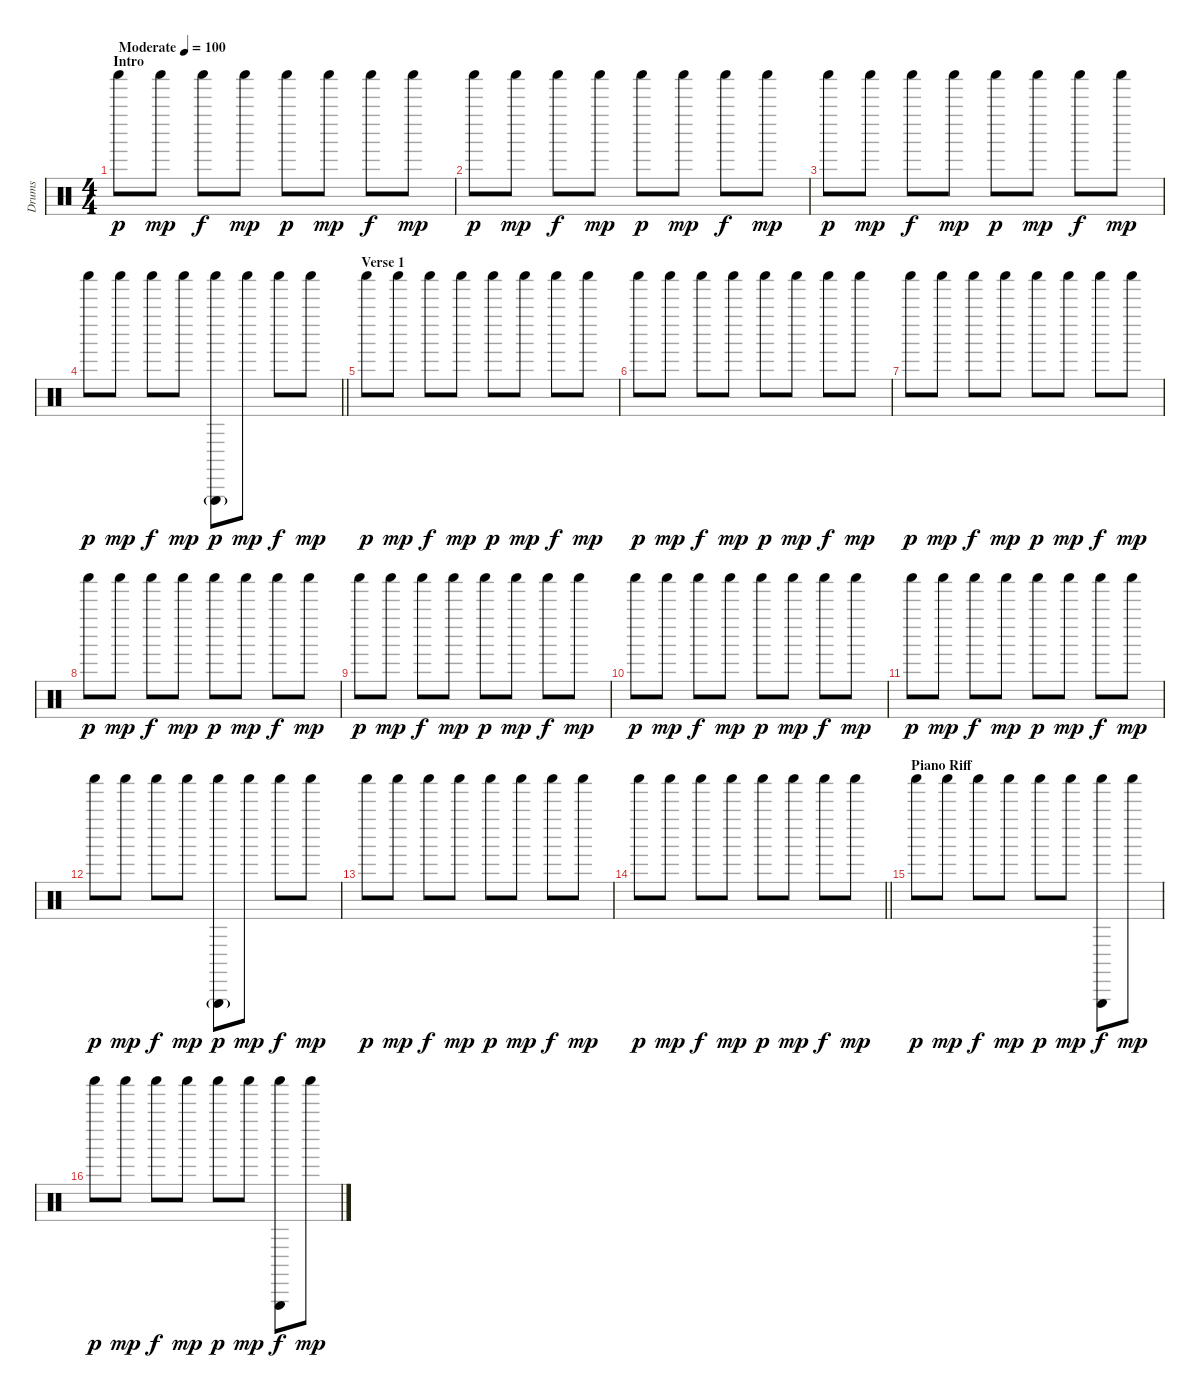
\track ("Drums" "Drums") {instrument percussion}
\staff {score}
\articulation defaults
\ts (4 4)
\section ("" "Intro")
\tempo (100 "Moderate")
\clef neutral
\ks c "Shaker (hit)".8{dy p} "Shaker (hit)".8{dy mp} "Shaker (hit)".8{dy f} "Shaker (hit)".8{dy mp} "Shaker (hit)".8{dy p} "Shaker (hit)".8{dy mp} "Shaker (hit)".8{dy f} "Shaker (hit)".8{dy mp}
|
"Shaker (hit)".8{dy p} "Shaker (hit)".8{dy mp} "Shaker (hit)".8{dy f} "Shaker (hit)".8{dy mp} "Shaker (hit)".8{dy p} "Shaker (hit)".8{dy mp} "Shaker (hit)".8{dy f} "Shaker (hit)".8{dy mp} |
"Shaker (hit)".8{dy p} "Shaker (hit)".8{dy mp} "Shaker (hit)".8{dy f} "Shaker (hit)".8{dy mp} "Shaker (hit)".8{dy p} "Shaker (hit)".8{dy mp} "Shaker (hit)".8{dy f} "Shaker (hit)".8{dy mp} |
\barLineRight lightlight "Shaker (hit)".8{dy p} "Shaker (hit)".8{dy mp} "Shaker (hit)".8{dy f} "Shaker (hit)".8{dy mp}
("Triangle (hit)"{g} "Shaker (hit)").8{dy p} "Shaker (hit)".8{dy mp} "Shaker (hit)".8{dy f} "Shaker (hit)".8{dy mp} |
\section ("" "Verse 1")
"Shaker (hit)".8{dy p} "Shaker (hit)".8{dy mp} "Shaker (hit)".8{dy f} "Shaker (hit)".8{dy mp} "Shaker (hit)".8{dy p} "Shaker (hit)".8{dy mp} "Shaker (hit)".8{dy f} "Shaker (hit)".8{dy mp} |
"Shaker (hit)".8{dy p} "Shaker (hit)".8{dy mp} "Shaker (hit)".8{dy f} "Shaker (hit)".8{dy mp} "Shaker (hit)".8{dy p} "Shaker (hit)".8{dy mp} "Shaker (hit)".8{dy f} "Shaker (hit)".8{dy mp} |
"Shaker (hit)".8{dy p} "Shaker (hit)".8{dy mp} "Shaker (hit)".8{dy f} "Shaker (hit)".8{dy mp} "Shaker (hit)".8{dy p} "Shaker (hit)".8{dy mp} "Shaker (hit)".8{dy f} "Shaker (hit)".8{dy mp} |
"Shaker (hit)".8{dy p} "Shaker (hit)".8{dy mp} "Shaker (hit)".8{dy f} "Shaker (hit)".8{dy mp} "Shaker (hit)".8{dy p} "Shaker (hit)".8{dy mp} "Shaker (hit)".8{dy f} "Shaker (hit)".8{dy mp} |
"Shaker (hit)".8{dy p} "Shaker (hit)".8{dy mp} "Shaker (hit)".8{dy f} "Shaker (hit)".8{dy mp} "Shaker (hit)".8{dy p} "Shaker (hit)".8{dy mp} "Shaker (hit)".8{dy f} "Shaker (hit)".8{dy mp} |
"Shaker (hit)".8{dy p} "Shaker (hit)".8{dy mp} "Shaker (hit)".8{dy f} "Shaker (hit)".8{dy mp} "Shaker (hit)".8{dy p} "Shaker (hit)".8{dy mp} "Shaker (hit)".8{dy f} "Shaker (hit)".8{dy mp} |
"Shaker (hit)".8{dy p} "Shaker (hit)".8{dy mp} "Shaker (hit)".8{dy f} "Shaker (hit)".8{dy mp} "Shaker (hit)".8{dy p} "Shaker (hit)".8{dy mp} "Shaker (hit)".8{dy f} "Shaker (hit)".8{dy mp} |
"Shaker (hit)".8{dy p} "Shaker (hit)".8{dy mp} "Shaker (hit)".8{dy f} "Shaker (hit)".8{dy mp} ("Triangle (hit)"{g} "Shaker (hit)").8{dy p} "Shaker (hit)".8{dy mp} "Shaker (hit)".8{dy f} "Shaker (hit)".8{dy mp} |
"Shaker (hit)".8{dy p} "Shaker (hit)".8{dy mp} "Shaker (hit)".8{dy f} "Shaker (hit)".8{dy mp} "Shaker (hit)".8{dy p} "Shaker (hit)".8{dy mp} "Shaker (hit)".8{dy f} "Shaker (hit)".8{dy mp} |
\barLineRight lightlight "Shaker (hit)".8{dy p} "Shaker (hit)".8{dy mp} "Shaker (hit)".8{dy f} "Shaker (hit)".8{dy mp} "Shaker (hit)".8{dy p} "Shaker (hit)".8{dy mp} "Shaker (hit)".8{dy f} "Shaker (hit)".8{dy mp}
|
\section ("" "Piano Riff")
"Shaker (hit)".8{dy p} "Shaker (hit)".8{dy mp} "Shaker (hit)".8{dy f} "Shaker (hit)".8{dy mp} "Shaker (hit)".8{dy p} "Shaker (hit)".8{dy mp} ("Triangle (hit)" "Shaker (hit)").8{dy f} "Shaker (hit)".8{dy mp} |
"Shaker (hit)".8{dy p} "Shaker (hit)".8{dy mp} "Shaker (hit)".8{dy f} "Shaker (hit)".8{dy mp} "Shaker (hit)".8{dy p} "Shaker (hit)".8{dy mp} ("Triangle (hit)" "Shaker (hit)").8{dy f} "Shaker (hit)".8{dy mp}
